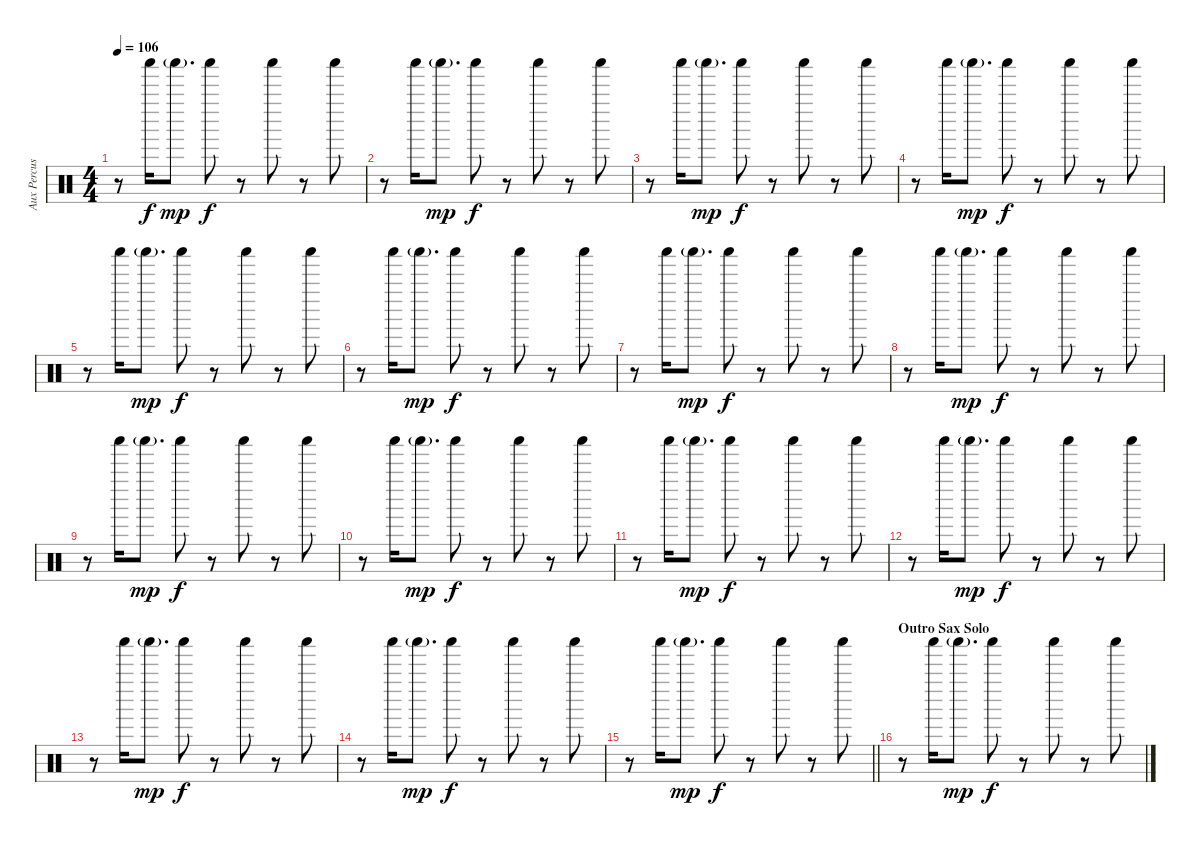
\track ("Aux Percussion" "Aux Percus") {instrument percussion}
\staff {score}
\articulation defaults
\ts (4 4)
\tempo 106
\clef neutral
\ks c
r.8{dy f} "Shaker (hit)".16 "Shaker (hit)"{g}.8{d dy mp} "Shaker (hit)".8{dy f} r.8 "Shaker (hit)".8 r.8 "Shaker (hit)".8 |
r.8 "Shaker (hit)".16 "Shaker (hit)"{g}.8{d dy mp} "Shaker (hit)".8{dy f} r.8 "Shaker (hit)".8 r.8 "Shaker (hit)".8 |
r.8 "Shaker (hit)".16 "Shaker (hit)"{g}.8{d dy mp} "Shaker (hit)".8{dy f} r.8 "Shaker (hit)".8 r.8 "Shaker (hit)".8 |
r.8 "Shaker (hit)".16 "Shaker (hit)"{g}.8{d dy mp} "Shaker (hit)".8{dy f} r.8 "Shaker (hit)".8 r.8 "Shaker (hit)".8 |
r.8 "Shaker (hit)".16 "Shaker (hit)"{g}.8{d dy mp} "Shaker (hit)".8{dy f} r.8 "Shaker (hit)".8 r.8 "Shaker (hit)".8 |
r.8 "Shaker (hit)".16 "Shaker (hit)"{g}.8{d dy mp} "Shaker (hit)".8{dy f} r.8 "Shaker (hit)".8 r.8 "Shaker (hit)".8 |
r.8 "Shaker (hit)".16 "Shaker (hit)"{g}.8{d dy mp} "Shaker (hit)".8{dy f} r.8 "Shaker (hit)".8 r.8 "Shaker (hit)".8 |
r.8 "Shaker (hit)".16 "Shaker (hit)"{g}.8{d dy mp} "Shaker (hit)".8{dy f} r.8 "Shaker (hit)".8 r.8 "Shaker (hit)".8 |
r.8 "Shaker (hit)".16 "Shaker (hit)"{g}.8{d dy mp} "Shaker (hit)".8{dy f} r.8 "Shaker (hit)".8 r.8 "Shaker (hit)".8 |
r.8 "Shaker (hit)".16 "Shaker (hit)"{g}.8{d dy mp} "Shaker (hit)".8{dy f} r.8 "Shaker (hit)".8 r.8 "Shaker (hit)".8 |
r.8 "Shaker (hit)".16 "Shaker (hit)"{g}.8{d dy mp} "Shaker (hit)".8{dy f} r.8 "Shaker (hit)".8 r.8 "Shaker (hit)".8 |
r.8 "Shaker (hit)".16 "Shaker (hit)"{g}.8{d dy mp} "Shaker (hit)".8{dy f} r.8 "Shaker (hit)".8 r.8 "Shaker (hit)".8 |
r.8 "Shaker (hit)".16 "Shaker (hit)"{g}.8{d dy mp} "Shaker (hit)".8{dy f} r.8 "Shaker (hit)".8 r.8 "Shaker (hit)".8 |
r.8 "Shaker (hit)".16 "Shaker (hit)"{g}.8{d dy mp} "Shaker (hit)".8{dy f} r.8 "Shaker (hit)".8 r.8 "Shaker (hit)".8 |
\barLineRight lightlight
r.8 "Shaker (hit)".16 "Shaker (hit)"{g}.8{d dy mp} "Shaker (hit)".8{dy f} r.8 "Shaker (hit)".8 r.8 "Shaker (hit)".8 |
\section ("" "Outro Sax Solo")
r.8 "Shaker (hit)".16 "Shaker (hit)"{g}.8{d dy mp} "Shaker (hit)".8{dy f} r.8 "Shaker (hit)".8 r.8 "Shaker (hit)".8
